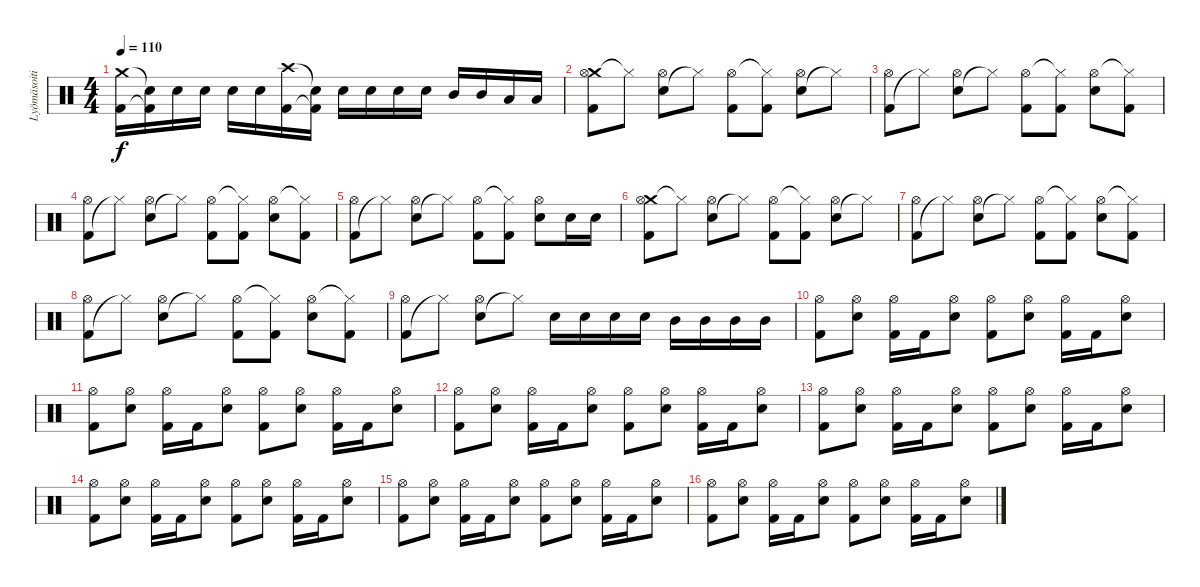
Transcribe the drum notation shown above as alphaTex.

\track ("Lyömäsoitin" "Lyömäsoiti") {instrument percussion}
\staff {score}
\articulation defaults
\ts (4 4)
\tempo 110
\clef neutral
\ks c
("Crash medium (hit)" "Kick (hit) 2").16{dy f} ("Snare (hit)"{t} "Kick (hit) 2"{t}).16 "Electric Snare (hit)".16 "Electric Snare (hit)".16 "Electric Snare (hit)".16 "Electric Snare (hit)".16 ("Crash high (hit)" "Kick (hit) 2").16 ("Snare (hit)"{t} "Kick (hit) 2"{t}).16 "Electric Snare (hit)".16 "Electric Snare (hit)".16 "Electric Snare (hit)".16 "Electric Snare (hit)".16 "Mid Tom (hit)".16 "Mid Tom (hit)".16 "Low Tom (hit)".16 "Low Tom (hit)".16 |
("Crash medium (hit)" "Kick (hit) 2" "Hi-Hat (open)").8 "Hi-Hat (closed)"{t}.8 ("Electric Snare (hit)" "Hi-Hat (open)").8 "Hi-Hat (closed)"{t}.8 ("Kick (hit) 2" "Hi-Hat (open)").8 ("Kick (hit) 2" "Hi-Hat (closed)"{t}).8 ("Electric Snare (hit)" "Hi-Hat (open)").8 "Hi-Hat (closed)"{t}.8 |
("Kick (hit) 2" "Hi-Hat (open)").8 "Hi-Hat (closed)"{t}.8 ("Electric Snare (hit)" "Hi-Hat (open)").8 "Hi-Hat (closed)"{t}.8 ("Kick (hit) 2" "Hi-Hat (open)").8 ("Kick (hit) 2" "Hi-Hat (closed)"{t}).8 ("Electric Snare (hit)" "Hi-Hat (open)").8 ("Kick (hit) 2" "Hi-Hat (closed)"{t}).8 |
("Kick (hit) 2" "Hi-Hat (open)").8 "Hi-Hat (closed)"{t}.8 ("Electric Snare (hit)" "Hi-Hat (open)").8 "Hi-Hat (closed)"{t}.8 ("Kick (hit) 2" "Hi-Hat (open)").8 ("Kick (hit) 2" "Hi-Hat (closed)"{t}).8 ("Electric Snare (hit)" "Hi-Hat (open)").8 ("Kick (hit) 2" "Hi-Hat (closed)"{t}).8 |
("Kick (hit) 2" "Hi-Hat (open)").8 "Hi-Hat (closed)"{t}.8 ("Electric Snare (hit)" "Hi-Hat (open)").8 "Hi-Hat (closed)"{t}.8 ("Kick (hit) 2" "Hi-Hat (open)").8 ("Kick (hit) 2" "Hi-Hat (closed)"{t}).8 ("Electric Snare (hit)" "Hi-Hat (open)").8 "Electric Snare (hit)".16 "Electric Snare (hit)".16 |
("Crash medium (hit)" "Kick (hit) 2" "Hi-Hat (open)").8 "Hi-Hat (closed)"{t}.8 ("Electric Snare (hit)" "Hi-Hat (open)").8 "Hi-Hat (closed)"{t}.8 ("Kick (hit) 2" "Hi-Hat (open)").8 ("Kick (hit) 2" "Hi-Hat (closed)"{t}).8 ("Electric Snare (hit)" "Hi-Hat (open)").8 "Hi-Hat (closed)"{t}.8 |
("Kick (hit) 2" "Hi-Hat (open)").8 "Hi-Hat (closed)"{t}.8 ("Electric Snare (hit)" "Hi-Hat (open)").8 "Hi-Hat (closed)"{t}.8 ("Kick (hit) 2" "Hi-Hat (open)").8 ("Kick (hit) 2" "Hi-Hat (closed)"{t}).8 ("Electric Snare (hit)" "Hi-Hat (open)").8 ("Kick (hit) 2" "Hi-Hat (closed)"{t}).8 |
("Kick (hit) 2" "Hi-Hat (open)").8 "Hi-Hat (closed)"{t}.8 ("Electric Snare (hit)" "Hi-Hat (open)").8 "Hi-Hat (closed)"{t}.8 ("Kick (hit) 2" "Hi-Hat (open)").8 ("Kick (hit) 2" "Hi-Hat (closed)"{t}).8 ("Electric Snare (hit)" "Hi-Hat (open)").8 ("Kick (hit) 2" "Hi-Hat (closed)"{t}).8 |
("Kick (hit) 2" "Hi-Hat (open)").8 "Hi-Hat (closed)"{t}.8 ("Electric Snare (hit)" "Hi-Hat (open)").8 "Hi-Hat (closed)"{t}.8 "Electric Snare (hit)".16 "Electric Snare (hit)".16 "Electric Snare (hit)".16 "Electric Snare (hit)".16 "Mid Tom (hit)".16 "Mid Tom (hit)".16 "Mid Tom (hit)".16 "Mid Tom (hit)".16 |
("Kick (hit) 2" "Hi-Hat (open)").8 ("Electric Snare (hit)" "Hi-Hat (open)").8 ("Kick (hit) 2" "Hi-Hat (open)").16 "Kick (hit) 2".16 ("Electric Snare (hit)" "Hi-Hat (open)").8 ("Kick (hit) 2" "Hi-Hat (open)").8 ("Electric Snare (hit)" "Hi-Hat (open)").8 ("Kick (hit) 2" "Hi-Hat (open)").16 "Kick (hit) 2".16 ("Electric Snare (hit)" "Hi-Hat (open)").8 |
("Kick (hit) 2" "Hi-Hat (open)").8 ("Electric Snare (hit)" "Hi-Hat (open)").8 ("Kick (hit) 2" "Hi-Hat (open)").16 "Kick (hit) 2".16 ("Electric Snare (hit)" "Hi-Hat (open)").8 ("Kick (hit) 2" "Hi-Hat (open)").8 ("Electric Snare (hit)" "Hi-Hat (open)").8 ("Kick (hit) 2" "Hi-Hat (open)").16 "Kick (hit) 2".16 ("Electric Snare (hit)" "Hi-Hat (open)").8 |
("Kick (hit) 2" "Hi-Hat (open)").8 ("Electric Snare (hit)" "Hi-Hat (open)").8 ("Kick (hit) 2" "Hi-Hat (open)").16 "Kick (hit) 2".16 ("Electric Snare (hit)" "Hi-Hat (open)").8 ("Kick (hit) 2" "Hi-Hat (open)").8 ("Electric Snare (hit)" "Hi-Hat (open)").8 ("Kick (hit) 2" "Hi-Hat (open)").16 "Kick (hit) 2".16 ("Electric Snare (hit)" "Hi-Hat (open)").8 |
("Kick (hit) 2" "Hi-Hat (open)").8 ("Electric Snare (hit)" "Hi-Hat (open)").8 ("Kick (hit) 2" "Hi-Hat (open)").16 "Kick (hit) 2".16 ("Electric Snare (hit)" "Hi-Hat (open)").8 ("Kick (hit) 2" "Hi-Hat (open)").8 ("Electric Snare (hit)" "Hi-Hat (open)").8 ("Kick (hit) 2" "Hi-Hat (open)").16 "Kick (hit) 2".16 ("Electric Snare (hit)" "Hi-Hat (open)").8 |
("Kick (hit) 2" "Hi-Hat (open)").8 ("Electric Snare (hit)" "Hi-Hat (open)").8 ("Kick (hit) 2" "Hi-Hat (open)").16 "Kick (hit) 2".16 ("Electric Snare (hit)" "Hi-Hat (open)").8 ("Kick (hit) 2" "Hi-Hat (open)").8 ("Electric Snare (hit)" "Hi-Hat (open)").8 ("Kick (hit) 2" "Hi-Hat (open)").16 "Kick (hit) 2".16 ("Electric Snare (hit)" "Hi-Hat (open)").8 |
("Kick (hit) 2" "Hi-Hat (open)").8 ("Electric Snare (hit)" "Hi-Hat (open)").8 ("Kick (hit) 2" "Hi-Hat (open)").16 "Kick (hit) 2".16 ("Electric Snare (hit)" "Hi-Hat (open)").8 ("Kick (hit) 2" "Hi-Hat (open)").8 ("Electric Snare (hit)" "Hi-Hat (open)").8 ("Kick (hit) 2" "Hi-Hat (open)").16 "Kick (hit) 2".16 ("Electric Snare (hit)" "Hi-Hat (open)").8 |
("Kick (hit) 2" "Hi-Hat (open)").8 ("Electric Snare (hit)" "Hi-Hat (open)").8 ("Kick (hit) 2" "Hi-Hat (open)").16 "Kick (hit) 2".16 ("Electric Snare (hit)" "Hi-Hat (open)").8 ("Kick (hit) 2" "Hi-Hat (open)").8 ("Electric Snare (hit)" "Hi-Hat (open)").8 ("Kick (hit) 2" "Hi-Hat (open)").16 "Kick (hit) 2".16 ("Electric Snare (hit)" "Hi-Hat (open)").8
